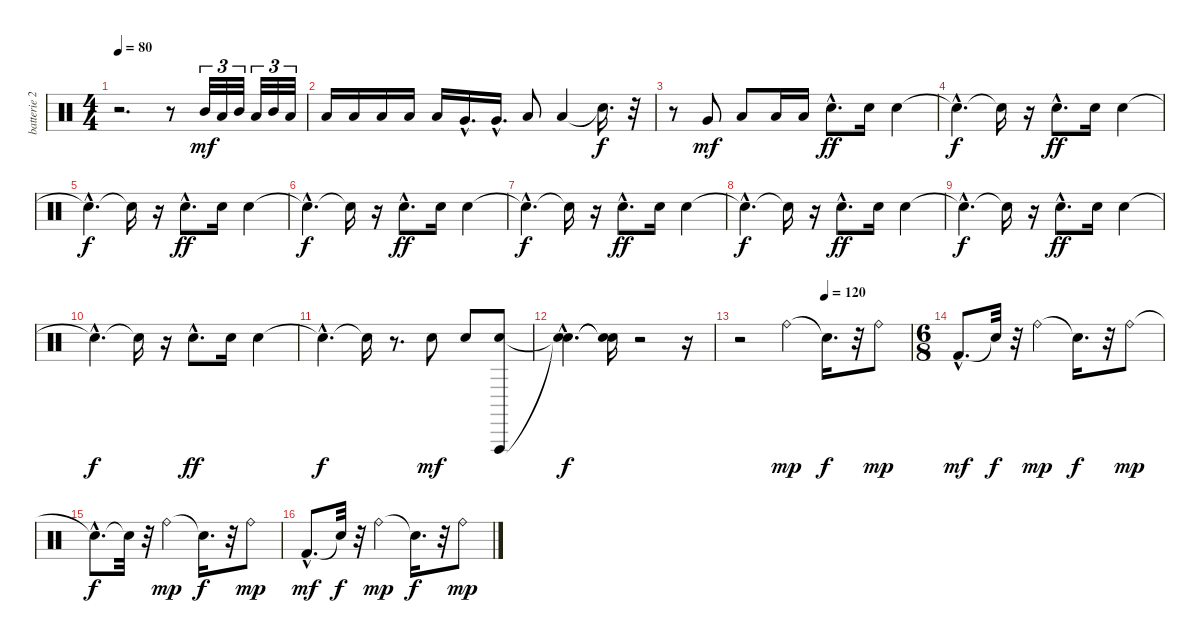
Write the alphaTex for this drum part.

\track ("batterie 2" "batterie 2") {instrument percussion}
\staff {score}
\articulation defaults
\ts (4 4)
\tempo 80
\clef neutral
\ks c
r.2{d dy mf} r.8 "Mid Tom (hit)".32{tu (3 2)} "Low Tom (hit)".32{tu (3 2)} "Mid Tom (hit)".32{tu (3 2)} "Low Tom (hit)".32{tu (3 2)} "Mid Tom (hit)".32{tu (3 2)} "Low Tom (hit)".32{tu (3 2)} |
"Low Tom (hit)".16 "Low Tom (hit)".16 "Low Tom (hit)".16 "Low Tom (hit)".16 "Low Tom (hit)".16 "Very Low Tom (hit)"{hac}.16{d} "Very Low Tom (hit)"{hac}.16{d} "Low Floor Tom (hit)".8 "Low Floor Tom (hit)".4 "Snare (hit)"{t}.16{d dy f} r.32 |
r.8 "Very Low Tom (hit)".8{dy mf} "Low Floor Tom (hit)".8 "Low Floor Tom (hit)".16 "Low Floor Tom (hit)".16 "Electric Snare (hit)"{hac}.8{d dy ff} "Electric Snare (hit)".16 "Electric Snare (hit)".4 |
"Snare (hit)"{hac t}.4{d dy f} "Snare (hit)"{t}.16 r.16 "Electric Snare (hit)"{hac}.8{d dy ff} "Electric Snare (hit)".16 "Electric Snare (hit)".4 |
"Snare (hit)"{hac t}.4{d dy f} "Snare (hit)"{t}.16 r.16 "Electric Snare (hit)"{hac}.8{d dy ff} "Electric Snare (hit)".16 "Electric Snare (hit)".4 |
"Snare (hit)"{hac t}.4{d dy f} "Snare (hit)"{t}.16 r.16 "Electric Snare (hit)"{hac}.8{d dy ff} "Electric Snare (hit)".16 "Electric Snare (hit)".4 |
"Snare (hit)"{hac t}.4{d dy f} "Snare (hit)"{t}.16 r.16 "Electric Snare (hit)"{hac}.8{d dy ff} "Electric Snare (hit)".16 "Electric Snare (hit)".4 |
"Snare (hit)"{hac t}.4{d dy f} "Snare (hit)"{t}.16 r.16 "Electric Snare (hit)"{hac}.8{d dy ff} "Electric Snare (hit)".16 "Electric Snare (hit)".4 |
"Snare (hit)"{hac t}.4{d dy f} "Snare (hit)"{t}.16 r.16 "Electric Snare (hit)"{hac}.8{d dy ff} "Electric Snare (hit)".16 "Electric Snare (hit)".4 |
"Snare (hit)"{hac t}.4{d dy f} "Snare (hit)"{t}.16 r.16 "Electric Snare (hit)"{hac}.8{d dy ff} "Electric Snare (hit)".16 "Electric Snare (hit)".4 |
"Snare (hit)"{hac t}.4{d dy f} "Snare (hit)"{t}.16 r.8{d} "Electric Snare (hit)".8{dy mf} "Electric Snare (hit)".8 ("Electric Snare (hit)" "Vibraslap (hit)").8 |
("Snare (hit)"{hac t} "Snare (hit)"{hac t}).4{d dy f} ("Snare (hit)"{t} "Snare (hit)"{t}).16 r.2 r.16 |
\tempo (120 0.5)
r.2 "Ride (bell)".4{dy mp} "Snare (hit)"{t}.16{d dy f} r.32 "Ride (bell)".8{dy mp} |
\ts (6 8)
"Kick (hit) 2"{hac}.8{d dy mf} "Snare (hit)"{t}.32{dy f} r.32 "Ride (bell)".4{dy mp} "Snare (hit)"{t}.16{d dy f} r.32 "Ride (bell)".8{dy mp} |
"Snare (hit)"{hac t}.8{d dy f} "Snare (hit)"{t}.32 r.32 "Ride (bell)".4{dy mp} "Snare (hit)"{t}.16{d dy f} r.32 "Ride (bell)".8{dy mp} |
"Kick (hit) 2"{hac}.8{d dy mf} "Snare (hit)"{t}.32{dy f} r.32 "Ride (bell)".4{dy mp} "Snare (hit)"{t}.16{d dy f} r.32 "Ride (bell)".8{dy mp}
